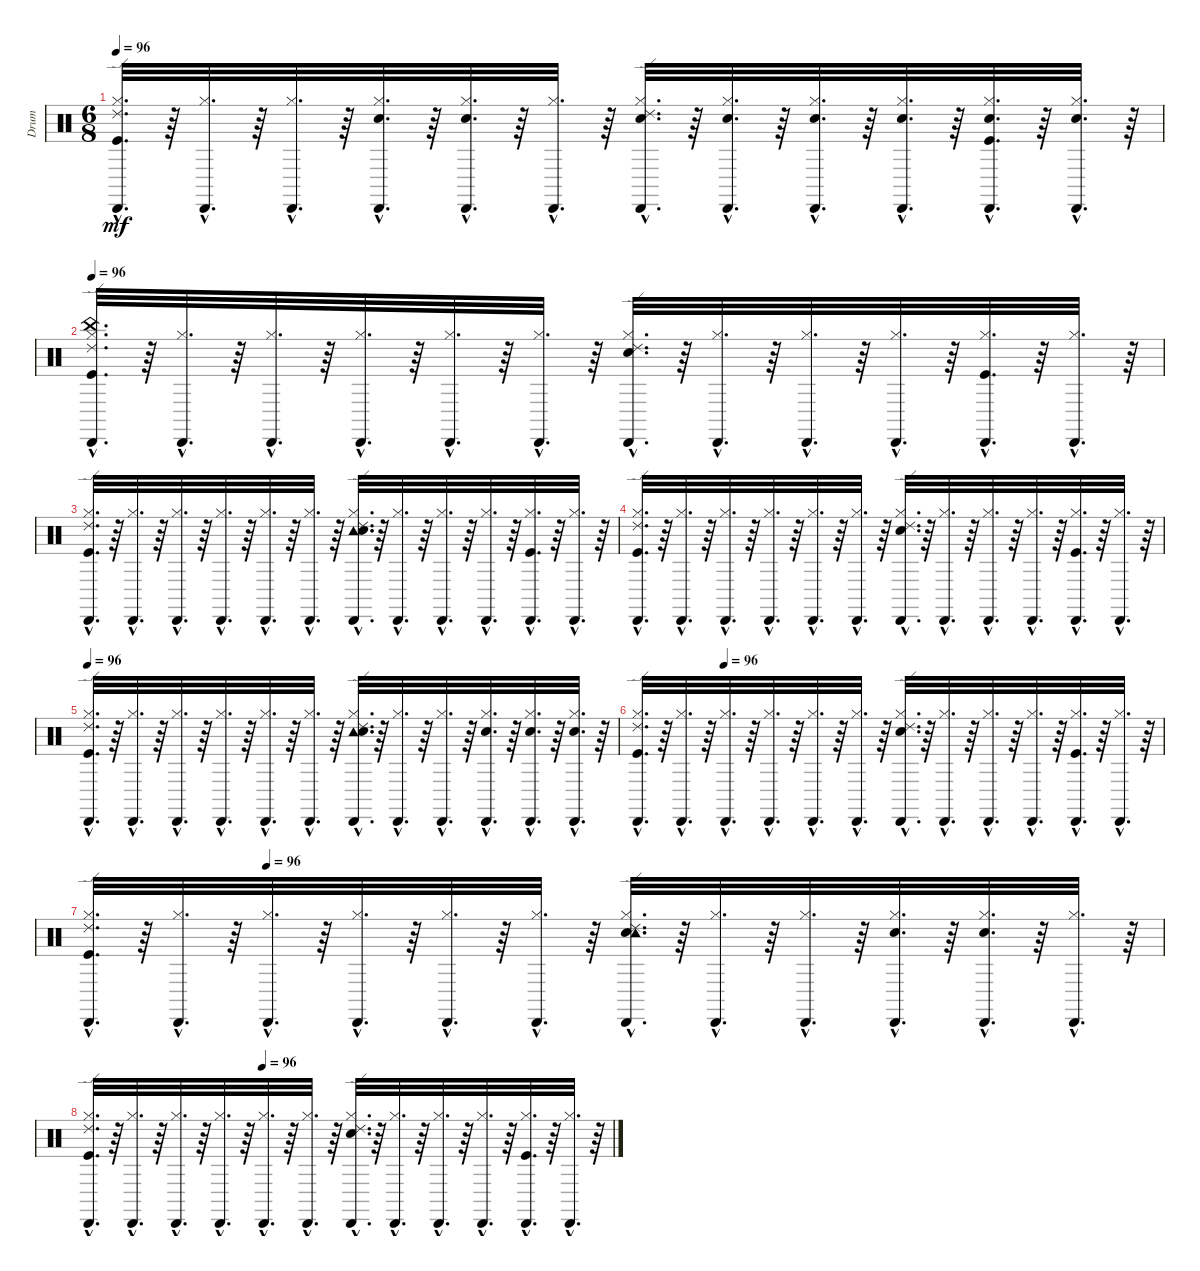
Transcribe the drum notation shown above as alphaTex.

\track ("Drum" "Drum") {instrument percussion}
\staff {score}
\articulation defaults
\ts (6 8)
\tempo 96
\clef neutral
\ks c
("Ride (edge) 2"{hac} "Cabasa (hit)"{hac} "Hi-Hat (closed)"{hac} "Kick (hit)"{hac}).32{d dy mf} r.64 ("Cabasa (hit)"{hac} "Hi-Hat (closed)"{hac}).32{d} r.64 ("Cabasa (hit)"{hac} "Hi-Hat (closed)"{hac}).32{d} r.64 ("Snare (hit) 2"{hac} "Cabasa (hit)"{hac} "Hi-Hat (closed)"{hac}).32{d} r.64 ("Snare (hit) 2"{hac} "Cabasa (hit)"{hac} "Hi-Hat (closed)"{hac}).32{d} r.64 ("Cabasa (hit)"{hac} "Hi-Hat (closed)"{hac}).32{d} r.64 ("Ride (edge) 2"{hac} "Cabasa (hit)"{hac} "Hi-Hat (closed)"{hac} "Snare (hit) 2"{hac}).32{d} r.64 ("Snare (hit) 2"{hac} "Cabasa (hit)"{hac} "Hi-Hat (closed)"{hac}).32{d} r.64 ("Snare (hit) 2"{hac} "Cabasa (hit)"{hac} "Hi-Hat (closed)"{hac}).32{d} r.64 ("Snare (hit) 2"{hac} "Cabasa (hit)"{hac} "Hi-Hat (closed)"{hac}).32{d} r.64 ("Snare (hit) 2"{hac} "Cabasa (hit)"{hac} "Hi-Hat (closed)"{hac} "Kick (hit)"{hac}).32{d} r.64 ("Snare (hit) 2"{hac} "Cabasa (hit)"{hac} "Hi-Hat (closed)"{hac}).32{d} r.64 |
\tempo 96
("Hi-Hat (closed)"{hac} "Kick (hit)"{hac} "China (hit)"{hac} "Cabasa (hit)"{hac} "Ride (edge) 2"{hac}).32{d} r.64 ("Hi-Hat (closed)"{hac} "Cabasa (hit)"{hac}).32{d} r.64 ("Hi-Hat (closed)"{hac} "Cabasa (hit)"{hac}).32{d} r.64 ("Hi-Hat (closed)"{hac} "Cabasa (hit)"{hac}).32{d} r.64 ("Hi-Hat (closed)"{hac} "Cabasa (hit)"{hac}).32{d} r.64 ("Hi-Hat (closed)"{hac} "Cabasa (hit)"{hac}).32{d} r.64 ("Hi-Hat (closed)"{hac} "Snare (hit) 2"{hac} "Cabasa (hit)"{hac} "Ride (edge) 2"{hac}).32{d} r.64 ("Hi-Hat (closed)"{hac} "Cabasa (hit)"{hac}).32{d} r.64 ("Hi-Hat (closed)"{hac} "Cabasa (hit)"{hac}).32{d} r.64 ("Hi-Hat (closed)"{hac} "Cabasa (hit)"{hac}).32{d} r.64 ("Hi-Hat (closed)"{hac} "Cabasa (hit)"{hac} "Kick (hit)"{hac}).32{d} r.64 ("Hi-Hat (closed)"{hac} "Cabasa (hit)"{hac}).32{d} r.64 |
("Kick (hit)"{hac} "Hi-Hat (closed)"{hac} "Cabasa (hit)"{hac} "Ride (edge) 2"{hac}).32{d} r.64 ("Hi-Hat (closed)"{hac} "Cabasa (hit)"{hac}).32{d} r.64 ("Hi-Hat (closed)"{hac} "Cabasa (hit)"{hac}).32{d} r.64 ("Hi-Hat (closed)"{hac} "Cabasa (hit)"{hac}).32{d} r.64 ("Hi-Hat (closed)"{hac} "Cabasa (hit)"{hac}).32{d} r.64 ("Hi-Hat (closed)"{hac} "Cabasa (hit)"{hac}).32{d} r.64 ("Tambourine (hit)"{hac} "Snare (hit) 2"{hac} "Hi-Hat (closed)"{hac} "Cabasa (hit)"{hac} "Ride (edge) 2"{hac}).32{d} r.64 ("Hi-Hat (closed)"{hac} "Cabasa (hit)"{hac}).32{d} r.64 ("Hi-Hat (closed)"{hac} "Cabasa (hit)"{hac}).32{d} r.64 ("Hi-Hat (closed)"{hac} "Cabasa (hit)"{hac}).32{d} r.64 ("Hi-Hat (closed)"{hac} "Cabasa (hit)"{hac} "Kick (hit)"{hac}).32{d} r.64 ("Hi-Hat (closed)"{hac} "Cabasa (hit)"{hac}).32{d} r.64 |
("Ride (edge) 2"{hac} "Cabasa (hit)"{hac} "Hi-Hat (closed)"{hac} "Kick (hit)"{hac}).32{d} r.64 ("Cabasa (hit)"{hac} "Hi-Hat (closed)"{hac}).32{d} r.64 ("Cabasa (hit)"{hac} "Hi-Hat (closed)"{hac}).32{d} r.64 ("Cabasa (hit)"{hac} "Hi-Hat (closed)"{hac}).32{d} r.64 ("Cabasa (hit)"{hac} "Hi-Hat (closed)"{hac}).32{d} r.64 ("Cabasa (hit)"{hac} "Hi-Hat (closed)"{hac}).32{d} r.64 ("Ride (edge) 2"{hac} "Cabasa (hit)"{hac} "Hi-Hat (closed)"{hac} "Snare (hit) 2"{hac}).32{d} r.64 ("Cabasa (hit)"{hac} "Hi-Hat (closed)"{hac}).32{d} r.64 ("Cabasa (hit)"{hac} "Hi-Hat (closed)"{hac}).32{d} r.64 ("Cabasa (hit)"{hac} "Hi-Hat (closed)"{hac}).32{d} r.64 ("Cabasa (hit)"{hac} "Hi-Hat (closed)"{hac} "Kick (hit)"{hac}).32{d} r.64 ("Cabasa (hit)"{hac} "Hi-Hat (closed)"{hac}).32{d} r.64 |
\tempo 96
("Ride (edge) 2"{hac} "Cabasa (hit)"{hac} "Hi-Hat (closed)"{hac} "Kick (hit)"{hac}).32{d} r.64 ("Cabasa (hit)"{hac} "Hi-Hat (closed)"{hac}).32{d} r.64 ("Cabasa (hit)"{hac} "Hi-Hat (closed)"{hac}).32{d} r.64 ("Cabasa (hit)"{hac} "Hi-Hat (closed)"{hac}).32{d} r.64 ("Cabasa (hit)"{hac} "Hi-Hat (closed)"{hac}).32{d} r.64 ("Cabasa (hit)"{hac} "Hi-Hat (closed)"{hac}).32{d} r.64 ("Tambourine (hit)"{hac} "Ride (edge) 2"{hac} "Cabasa (hit)"{hac} "Hi-Hat (closed)"{hac} "Snare (hit) 2"{hac}).32{d} r.64 ("Cabasa (hit)"{hac} "Hi-Hat (closed)"{hac}).32{d} r.64 ("Cabasa (hit)"{hac} "Hi-Hat (closed)"{hac}).32{d} r.64 ("Snare (hit) 2"{hac} "Cabasa (hit)"{hac} "Hi-Hat (closed)"{hac}).32{d} r.64 ("Snare (hit) 2"{hac} "Cabasa (hit)"{hac} "Hi-Hat (closed)"{hac}).32{d} r.64 ("Snare (hit) 2"{hac} "Cabasa (hit)"{hac} "Hi-Hat (closed)"{hac}).32{d} r.64 |
\tempo (96 0.16666666666666666)
("Ride (edge) 2"{hac} "Cabasa (hit)"{hac} "Hi-Hat (closed)"{hac} "Kick (hit)"{hac}).32{d} r.64 ("Cabasa (hit)"{hac} "Hi-Hat (closed)"{hac}).32{d} r.64 ("Cabasa (hit)"{hac} "Hi-Hat (closed)"{hac}).32{d} r.64 ("Cabasa (hit)"{hac} "Hi-Hat (closed)"{hac}).32{d} r.64 ("Cabasa (hit)"{hac} "Hi-Hat (closed)"{hac}).32{d} r.64 ("Cabasa (hit)"{hac} "Hi-Hat (closed)"{hac}).32{d} r.64 ("Ride (edge) 2"{hac} "Cabasa (hit)"{hac} "Hi-Hat (closed)"{hac} "Snare (hit) 2"{hac}).32{d} r.64 ("Cabasa (hit)"{hac} "Hi-Hat (closed)"{hac}).32{d} r.64 ("Cabasa (hit)"{hac} "Hi-Hat (closed)"{hac}).32{d} r.64 ("Cabasa (hit)"{hac} "Hi-Hat (closed)"{hac}).32{d} r.64 ("Kick (hit)"{hac} "Cabasa (hit)"{hac} "Hi-Hat (closed)"{hac}).32{d} r.64 ("Cabasa (hit)"{hac} "Hi-Hat (closed)"{hac}).32{d} r.64 |
\tempo (96 0.16666666666666666)
("Ride (edge) 2"{hac} "Cabasa (hit)"{hac} "Kick (hit)"{hac} "Hi-Hat (closed)"{hac}).32{d} r.64 ("Cabasa (hit)"{hac} "Hi-Hat (closed)"{hac}).32{d} r.64 ("Cabasa (hit)"{hac} "Hi-Hat (closed)"{hac}).32{d} r.64 ("Cabasa (hit)"{hac} "Hi-Hat (closed)"{hac}).32{d} r.64 ("Cabasa (hit)"{hac} "Hi-Hat (closed)"{hac}).32{d} r.64 ("Cabasa (hit)"{hac} "Hi-Hat (closed)"{hac}).32{d} r.64 ("Ride (edge) 2"{hac} "Cabasa (hit)"{hac} "Snare (hit) 2"{hac} "Hi-Hat (closed)"{hac} "Tambourine (hit)"{hac}).32{d} r.64 ("Cabasa (hit)"{hac} "Hi-Hat (closed)"{hac}).32{d} r.64 ("Cabasa (hit)"{hac} "Hi-Hat (closed)"{hac}).32{d} r.64 ("Cabasa (hit)"{hac} "Snare (hit) 2"{hac} "Hi-Hat (closed)"{hac}).32{d} r.64 ("Cabasa (hit)"{hac} "Snare (hit) 2"{hac} "Hi-Hat (closed)"{hac}).32{d} r.64 ("Cabasa (hit)"{hac} "Hi-Hat (closed)"{hac}).32{d} r.64 |
\tempo (96 0.3333333333333333)
("Kick (hit)"{hac} "Hi-Hat (closed)"{hac} "Cabasa (hit)"{hac} "Ride (edge) 2"{hac}).32{d} r.64 ("Hi-Hat (closed)"{hac} "Cabasa (hit)"{hac}).32{d} r.64 ("Hi-Hat (closed)"{hac} "Cabasa (hit)"{hac}).32{d} r.64 ("Hi-Hat (closed)"{hac} "Cabasa (hit)"{hac}).32{d} r.64 ("Hi-Hat (closed)"{hac} "Cabasa (hit)"{hac}).32{d} r.64 ("Hi-Hat (closed)"{hac} "Cabasa (hit)"{hac}).32{d} r.64 ("Snare (hit) 2"{hac} "Hi-Hat (closed)"{hac} "Cabasa (hit)"{hac} "Ride (edge) 2"{hac}).32{d} r.64 ("Hi-Hat (closed)"{hac} "Cabasa (hit)"{hac}).32{d} r.64 ("Hi-Hat (closed)"{hac} "Cabasa (hit)"{hac}).32{d} r.64 ("Hi-Hat (closed)"{hac} "Cabasa (hit)"{hac}).32{d} r.64 ("Kick (hit)"{hac} "Hi-Hat (closed)"{hac} "Cabasa (hit)"{hac}).32{d} r.64 ("Hi-Hat (closed)"{hac} "Cabasa (hit)"{hac}).32{d} r.64
